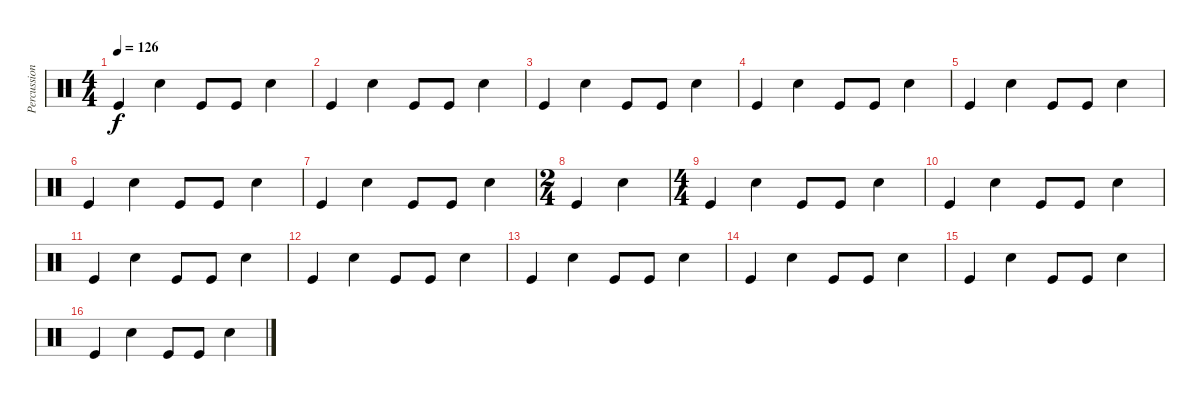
\track ("Percussion" "Percussion") {instrument percussion}
\staff {score}
\articulation defaults
\ts (4 4)
\tempo 126
\clef neutral
\ks c "Kick (hit)".4{dy f} "Snare (hit) 2".4 "Kick (hit)".8 "Kick (hit)".8 "Snare (hit) 2".4
|
"Kick (hit)".4 "Snare (hit) 2".4 "Kick (hit)".8 "Kick (hit)".8 "Snare (hit) 2".4 |
"Kick (hit)".4 "Snare (hit) 2".4 "Kick (hit)".8 "Kick (hit)".8 "Snare (hit) 2".4 |
"Kick (hit)".4 "Snare (hit) 2".4 "Kick (hit)".8 "Kick (hit)".8 "Snare (hit) 2".4 |
"Kick (hit)".4 "Snare (hit) 2".4 "Kick (hit)".8 "Kick (hit)".8 "Snare (hit) 2".4 |
"Kick (hit)".4 "Snare (hit) 2".4 "Kick (hit)".8 "Kick (hit)".8 "Snare (hit) 2".4 |
"Kick (hit)".4 "Snare (hit) 2".4 "Kick (hit)".8 "Kick (hit)".8 "Snare (hit) 2".4 |
\ts (2 4)
"Kick (hit)".4 "Snare (hit) 2".4 |
\ts (4 4)
"Kick (hit)".4 "Snare (hit) 2".4 "Kick (hit)".8 "Kick (hit)".8 "Snare (hit) 2".4 |
"Kick (hit)".4 "Snare (hit) 2".4 "Kick (hit)".8 "Kick (hit)".8 "Snare (hit) 2".4 |
"Kick (hit)".4 "Snare (hit) 2".4 "Kick (hit)".8 "Kick (hit)".8 "Snare (hit) 2".4 |
"Kick (hit)".4 "Snare (hit) 2".4 "Kick (hit)".8 "Kick (hit)".8 "Snare (hit) 2".4 |
"Kick (hit)".4 "Snare (hit) 2".4 "Kick (hit)".8 "Kick (hit)".8 "Snare (hit) 2".4 |
"Kick (hit)".4 "Snare (hit) 2".4 "Kick (hit)".8 "Kick (hit)".8 "Snare (hit) 2".4 |
"Kick (hit)".4 "Snare (hit) 2".4 "Kick (hit)".8 "Kick (hit)".8 "Snare (hit) 2".4 |
"Kick (hit)".4 "Snare (hit) 2".4 "Kick (hit)".8 "Kick (hit)".8 "Snare (hit) 2".4
